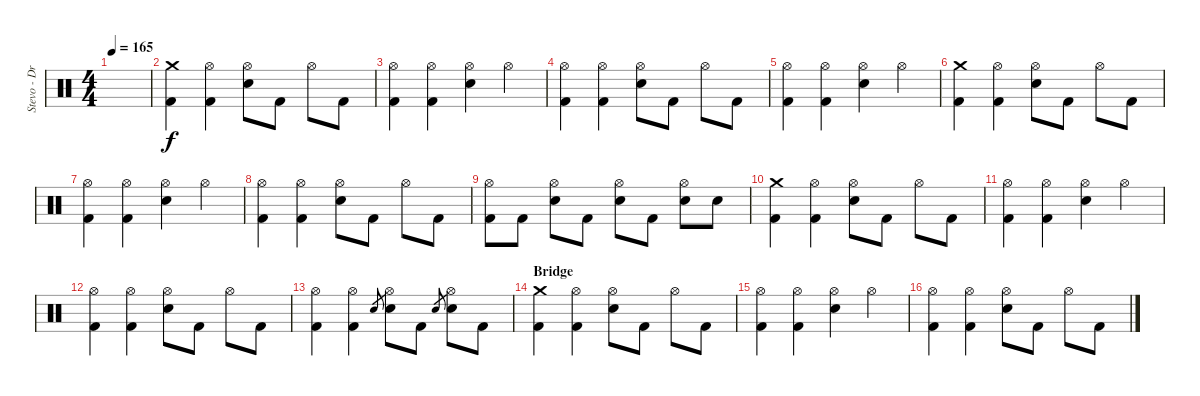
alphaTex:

\track ("Stevo - Drums" "Stevo - Dr") {instrument percussion}
\staff {score}
\articulation defaults
\ts (4 4)
\tempo 165
\clef neutral
\ks c
|
("Crash medium (hit)" "Kick (hit) 2").4 ("Hi-Hat (open)" "Kick (hit) 2").4 ("Electric Snare (hit)" "Hi-Hat (open)").8 "Kick (hit) 2".8 "Hi-Hat (open)".8 "Kick (hit) 2".8 |
("Hi-Hat (open)" "Kick (hit) 2").4 ("Hi-Hat (open)" "Kick (hit) 2").4 ("Electric Snare (hit)" "Hi-Hat (open)").4 "Hi-Hat (open)".4 |
("Hi-Hat (open)" "Kick (hit) 2").4 ("Hi-Hat (open)" "Kick (hit) 2").4 ("Electric Snare (hit)" "Hi-Hat (open)").8 "Kick (hit) 2".8 "Hi-Hat (open)".8 "Kick (hit) 2".8 |
("Hi-Hat (open)" "Kick (hit) 2").4 ("Hi-Hat (open)" "Kick (hit) 2").4 ("Electric Snare (hit)" "Hi-Hat (open)").4 "Hi-Hat (open)".4 |
("Crash medium (hit)" "Kick (hit) 2").4 ("Hi-Hat (open)" "Kick (hit) 2").4 ("Electric Snare (hit)" "Hi-Hat (open)").8 "Kick (hit) 2".8 "Hi-Hat (open)".8 "Kick (hit) 2".8 |
("Hi-Hat (open)" "Kick (hit) 2").4 ("Hi-Hat (open)" "Kick (hit) 2").4 ("Electric Snare (hit)" "Hi-Hat (open)").4 "Hi-Hat (open)".4 |
("Hi-Hat (open)" "Kick (hit) 2").4 ("Hi-Hat (open)" "Kick (hit) 2").4 ("Electric Snare (hit)" "Hi-Hat (open)").8 "Kick (hit) 2".8 "Hi-Hat (open)".8 "Kick (hit) 2".8 |
("Hi-Hat (open)" "Kick (hit) 2").8 "Kick (hit) 2".8 ("Hi-Hat (open)" "Electric Snare (hit)").8 "Kick (hit) 2".8 ("Hi-Hat (open)" "Electric Snare (hit)").8 "Kick (hit) 2".8 ("Hi-Hat (open)" "Electric Snare (hit)").8 "Electric Snare (hit)".8 |
("Crash medium (hit)" "Kick (hit) 2").4 ("Hi-Hat (open)" "Kick (hit) 2").4 ("Electric Snare (hit)" "Hi-Hat (open)").8 "Kick (hit) 2".8 "Hi-Hat (open)".8 "Kick (hit) 2".8 |
("Hi-Hat (open)" "Kick (hit) 2").4 ("Hi-Hat (open)" "Kick (hit) 2").4 ("Electric Snare (hit)" "Hi-Hat (open)").4 "Hi-Hat (open)".4 |
("Hi-Hat (open)" "Kick (hit) 2").4 ("Hi-Hat (open)" "Kick (hit) 2").4 ("Electric Snare (hit)" "Hi-Hat (open)").8 "Kick (hit) 2".8 "Hi-Hat (open)".8 "Kick (hit) 2".8 |
("Hi-Hat (open)" "Kick (hit) 2").4 ("Hi-Hat (open)" "Kick (hit) 2").4 "Electric Snare (hit)".8{gr} ("Electric Snare (hit)" "Hi-Hat (open)").8 "Kick (hit) 2".8 "Electric Snare (hit)".8{gr} ("Hi-Hat (open)" "Electric Snare (hit)").8 "Kick (hit) 2".8 |
\section ("" "Bridge")
("Crash medium (hit)" "Kick (hit) 2").4 ("Hi-Hat (open)" "Kick (hit) 2").4 ("Electric Snare (hit)" "Hi-Hat (open)").8 "Kick (hit) 2".8 "Hi-Hat (open)".8 "Kick (hit) 2".8 |
("Hi-Hat (open)" "Kick (hit) 2").4 ("Hi-Hat (open)" "Kick (hit) 2").4 ("Electric Snare (hit)" "Hi-Hat (open)").4 "Hi-Hat (open)".4 |
("Hi-Hat (open)" "Kick (hit) 2").4 ("Hi-Hat (open)" "Kick (hit) 2").4 ("Electric Snare (hit)" "Hi-Hat (open)").8 "Kick (hit) 2".8 "Hi-Hat (open)".8 "Kick (hit) 2".8
